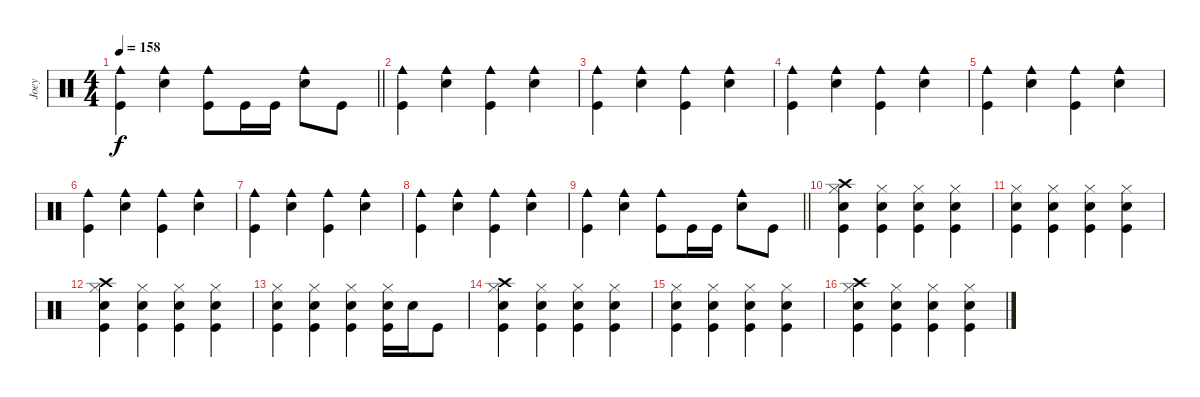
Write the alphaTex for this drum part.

\track ("Joey" "Joey") {instrument percussion}
\staff {score}
\articulation defaults
\ts (4 4)
\tempo 158
\clef neutral
\barLineRight lightlight
\ks c
("Cowbell medium (hit)" "Kick (hit)").4{dy f} ("Cowbell medium (hit)" "Electric Snare (hit)").4 ("Cowbell medium (hit)" "Kick (hit)").8 "Kick (hit)".16 "Kick (hit)".16 ("Cowbell medium (hit)" "Electric Snare (hit)").8 "Kick (hit)".8 |
("Cowbell medium (hit)" "Kick (hit)").4 ("Cowbell medium (hit)" "Electric Snare (hit)").4 ("Cowbell medium (hit)" "Kick (hit)").4 ("Cowbell medium (hit)" "Electric Snare (hit)").4 |
("Cowbell medium (hit)" "Kick (hit)").4 ("Cowbell medium (hit)" "Electric Snare (hit)").4 ("Cowbell medium (hit)" "Kick (hit)").4 ("Cowbell medium (hit)" "Electric Snare (hit)").4 |
("Cowbell medium (hit)" "Kick (hit)").4 ("Cowbell medium (hit)" "Electric Snare (hit)").4 ("Cowbell medium (hit)" "Kick (hit)").4 ("Cowbell medium (hit)" "Electric Snare (hit)").4 |
("Cowbell medium (hit)" "Kick (hit)").4 ("Cowbell medium (hit)" "Electric Snare (hit)").4 ("Cowbell medium (hit)" "Kick (hit)").4 ("Cowbell medium (hit)" "Electric Snare (hit)").4 |
("Cowbell medium (hit)" "Kick (hit)").4 ("Cowbell medium (hit)" "Electric Snare (hit)").4 ("Cowbell medium (hit)" "Kick (hit)").4 ("Cowbell medium (hit)" "Electric Snare (hit)").4 |
("Cowbell medium (hit)" "Kick (hit)").4 ("Cowbell medium (hit)" "Electric Snare (hit)").4 ("Cowbell medium (hit)" "Kick (hit)").4 ("Cowbell medium (hit)" "Electric Snare (hit)").4 |
("Cowbell medium (hit)" "Kick (hit)").4 ("Cowbell medium (hit)" "Electric Snare (hit)").4 ("Cowbell medium (hit)" "Kick (hit)").4 ("Cowbell medium (hit)" "Electric Snare (hit)").4 |
\barLineRight lightlight
("Cowbell medium (hit)" "Kick (hit)").4 ("Cowbell medium (hit)" "Electric Snare (hit)").4 ("Cowbell medium (hit)" "Kick (hit)").8 "Kick (hit)".16 "Kick (hit)".16 ("Cowbell medium (hit)" "Electric Snare (hit)").8 "Kick (hit)".8 |
("Crash high (hit)" "Electric Snare (hit)" "Kick (hit)" "Hi-Hat (closed)").4 ("Electric Snare (hit)" "Kick (hit)" "Hi-Hat (closed)").4 ("Electric Snare (hit)" "Kick (hit)" "Hi-Hat (closed)").4 ("Electric Snare (hit)" "Kick (hit)" "Hi-Hat (closed)").4 |
("Electric Snare (hit)" "Kick (hit)" "Hi-Hat (closed)").4 ("Electric Snare (hit)" "Kick (hit)" "Hi-Hat (closed)").4 ("Electric Snare (hit)" "Kick (hit)" "Hi-Hat (closed)").4 ("Electric Snare (hit)" "Kick (hit)" "Hi-Hat (closed)").4 |
("Crash high (hit)" "Electric Snare (hit)" "Kick (hit)" "Hi-Hat (closed)").4 ("Electric Snare (hit)" "Kick (hit)" "Hi-Hat (closed)").4 ("Electric Snare (hit)" "Kick (hit)" "Hi-Hat (closed)").4 ("Electric Snare (hit)" "Kick (hit)" "Hi-Hat (closed)").4 |
("Electric Snare (hit)" "Kick (hit)" "Hi-Hat (closed)").4 ("Electric Snare (hit)" "Kick (hit)" "Hi-Hat (closed)").4 ("Electric Snare (hit)" "Kick (hit)" "Hi-Hat (closed)").4 ("Electric Snare (hit)" "Kick (hit)" "Hi-Hat (closed)").16 "Electric Snare (hit)".16 "Kick (hit)".8 |
("Crash high (hit)" "Electric Snare (hit)" "Kick (hit)" "Hi-Hat (closed)").4 ("Electric Snare (hit)" "Kick (hit)" "Hi-Hat (closed)").4 ("Electric Snare (hit)" "Kick (hit)" "Hi-Hat (closed)").4 ("Electric Snare (hit)" "Kick (hit)" "Hi-Hat (closed)").4 |
("Electric Snare (hit)" "Kick (hit)" "Hi-Hat (closed)").4 ("Electric Snare (hit)" "Kick (hit)" "Hi-Hat (closed)").4 ("Electric Snare (hit)" "Kick (hit)" "Hi-Hat (closed)").4 ("Electric Snare (hit)" "Kick (hit)" "Hi-Hat (closed)").4 |
("Crash high (hit)" "Electric Snare (hit)" "Kick (hit)" "Hi-Hat (closed)").4 ("Electric Snare (hit)" "Kick (hit)" "Hi-Hat (closed)").4 ("Electric Snare (hit)" "Kick (hit)" "Hi-Hat (closed)").4 ("Electric Snare (hit)" "Kick (hit)" "Hi-Hat (closed)").4
